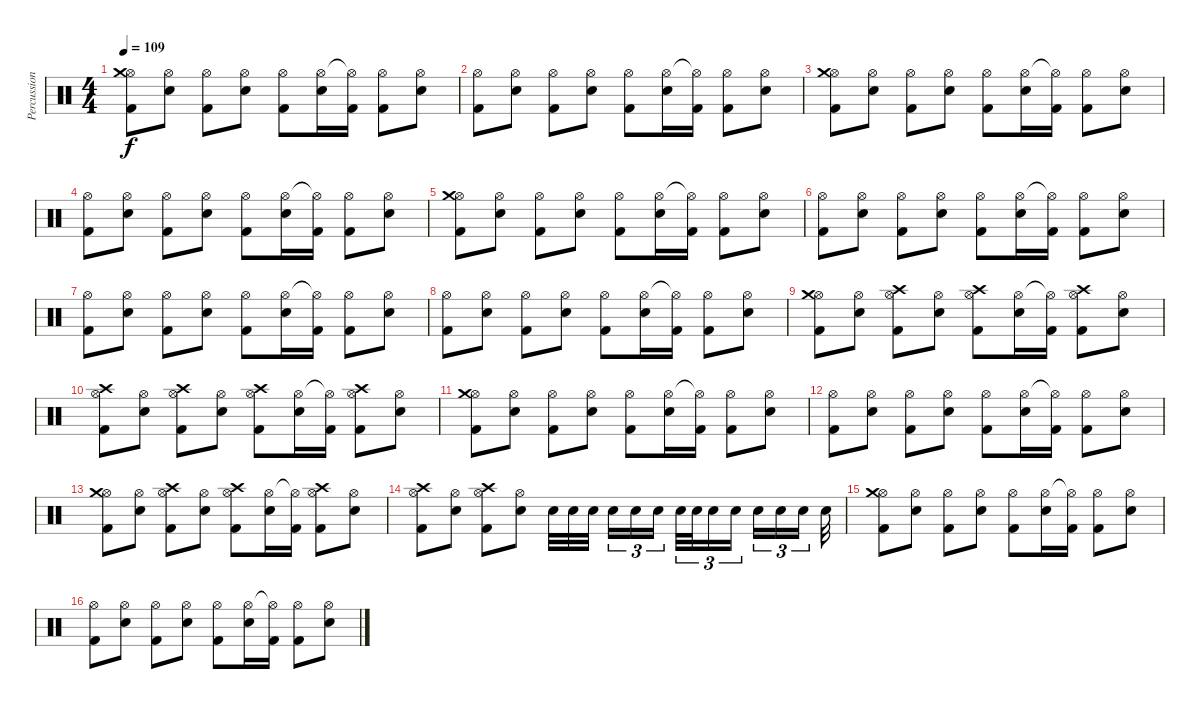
\track ("Percussion" "Percussion") {instrument percussion}
\staff {score}
\articulation defaults
\ts (4 4)
\tempo 109
\clef neutral
\ks c
("Hi-Hat (open)" "Crash medium (hit)" "Kick (hit) 2").8{dy f} ("Hi-Hat (open)" "Electric Snare (hit)").8 ("Hi-Hat (open)" "Kick (hit) 2").8 ("Hi-Hat (open)" "Electric Snare (hit)").8 ("Hi-Hat (open)" "Kick (hit) 2").8 ("Hi-Hat (open)" "Electric Snare (hit)").16 ("Hi-Hat (open)"{t} "Kick (hit) 2").16 ("Hi-Hat (open)" "Kick (hit) 2").8 ("Hi-Hat (open)" "Electric Snare (hit)").8 |
("Hi-Hat (open)" "Kick (hit) 2").8 ("Hi-Hat (open)" "Electric Snare (hit)").8 ("Hi-Hat (open)" "Kick (hit) 2").8 ("Hi-Hat (open)" "Electric Snare (hit)").8 ("Hi-Hat (open)" "Kick (hit) 2").8 ("Hi-Hat (open)" "Electric Snare (hit)").16 ("Hi-Hat (open)"{t} "Kick (hit) 2").16 ("Hi-Hat (open)" "Kick (hit) 2").8 ("Hi-Hat (open)" "Electric Snare (hit)").8 |
("Hi-Hat (open)" "Crash medium (hit)" "Kick (hit) 2").8 ("Hi-Hat (open)" "Electric Snare (hit)").8 ("Hi-Hat (open)" "Kick (hit) 2").8 ("Hi-Hat (open)" "Electric Snare (hit)").8 ("Hi-Hat (open)" "Kick (hit) 2").8 ("Hi-Hat (open)" "Electric Snare (hit)").16 ("Hi-Hat (open)"{t} "Kick (hit) 2").16 ("Hi-Hat (open)" "Kick (hit) 2").8 ("Hi-Hat (open)" "Electric Snare (hit)").8 |
("Hi-Hat (open)" "Kick (hit) 2").8 ("Hi-Hat (open)" "Electric Snare (hit)").8 ("Hi-Hat (open)" "Kick (hit) 2").8 ("Hi-Hat (open)" "Electric Snare (hit)").8 ("Hi-Hat (open)" "Kick (hit) 2").8 ("Hi-Hat (open)" "Electric Snare (hit)").16 ("Hi-Hat (open)"{t} "Kick (hit) 2").16 ("Hi-Hat (open)" "Kick (hit) 2").8 ("Hi-Hat (open)" "Electric Snare (hit)").8 |
("Hi-Hat (open)" "Crash medium (hit)" "Kick (hit) 2").8 ("Hi-Hat (open)" "Electric Snare (hit)").8 ("Hi-Hat (open)" "Kick (hit) 2").8 ("Hi-Hat (open)" "Electric Snare (hit)").8 ("Hi-Hat (open)" "Kick (hit) 2").8 ("Hi-Hat (open)" "Electric Snare (hit)").16 ("Hi-Hat (open)"{t} "Kick (hit) 2").16 ("Hi-Hat (open)" "Kick (hit) 2").8 ("Hi-Hat (open)" "Electric Snare (hit)").8 |
("Hi-Hat (open)" "Kick (hit) 2").8 ("Hi-Hat (open)" "Electric Snare (hit)").8 ("Hi-Hat (open)" "Kick (hit) 2").8 ("Hi-Hat (open)" "Electric Snare (hit)").8 ("Hi-Hat (open)" "Kick (hit) 2").8 ("Hi-Hat (open)" "Electric Snare (hit)").16 ("Hi-Hat (open)"{t} "Kick (hit) 2").16 ("Hi-Hat (open)" "Kick (hit) 2").8 ("Hi-Hat (open)" "Electric Snare (hit)").8 |
("Hi-Hat (open)" "Kick (hit) 2").8 ("Hi-Hat (open)" "Electric Snare (hit)").8 ("Hi-Hat (open)" "Kick (hit) 2").8 ("Hi-Hat (open)" "Electric Snare (hit)").8 ("Hi-Hat (open)" "Kick (hit) 2").8 ("Hi-Hat (open)" "Electric Snare (hit)").16 ("Hi-Hat (open)"{t} "Kick (hit) 2").16 ("Hi-Hat (open)" "Kick (hit) 2").8 ("Hi-Hat (open)" "Electric Snare (hit)").8 |
("Hi-Hat (open)" "Kick (hit) 2").8 ("Hi-Hat (open)" "Electric Snare (hit)").8 ("Hi-Hat (open)" "Kick (hit) 2").8 ("Hi-Hat (open)" "Electric Snare (hit)").8 ("Hi-Hat (open)" "Kick (hit) 2").8 ("Hi-Hat (open)" "Electric Snare (hit)").16 ("Hi-Hat (open)"{t} "Kick (hit) 2").16 ("Hi-Hat (open)" "Kick (hit) 2").8 ("Hi-Hat (open)" "Electric Snare (hit)").8 |
("Hi-Hat (open)" "Crash medium (hit)" "Kick (hit) 2").8 ("Hi-Hat (open)" "Electric Snare (hit)").8 ("Hi-Hat (open)" "Crash high (hit)" "Kick (hit) 2").8 ("Hi-Hat (open)" "Electric Snare (hit)").8 ("Hi-Hat (open)" "Crash high (hit)" "Kick (hit) 2").8 ("Hi-Hat (open)" "Electric Snare (hit)").16 ("Hi-Hat (open)"{t} "Kick (hit) 2").16 ("Hi-Hat (open)" "Crash high (hit)" "Kick (hit) 2").8 ("Hi-Hat (open)" "Electric Snare (hit)").8 |
("Hi-Hat (open)" "Crash high (hit)" "Kick (hit) 2").8 ("Hi-Hat (open)" "Electric Snare (hit)").8 ("Hi-Hat (open)" "Crash high (hit)" "Kick (hit) 2").8 ("Hi-Hat (open)" "Electric Snare (hit)").8 ("Hi-Hat (open)" "Crash high (hit)" "Kick (hit) 2").8 ("Hi-Hat (open)" "Electric Snare (hit)").16 ("Hi-Hat (open)"{t} "Kick (hit) 2").16 ("Hi-Hat (open)" "Crash high (hit)" "Kick (hit) 2").8 ("Hi-Hat (open)" "Electric Snare (hit)").8 |
("Hi-Hat (open)" "Crash medium (hit)" "Kick (hit) 2").8 ("Hi-Hat (open)" "Electric Snare (hit)").8 ("Hi-Hat (open)" "Kick (hit) 2").8 ("Hi-Hat (open)" "Electric Snare (hit)").8 ("Hi-Hat (open)" "Kick (hit) 2").8 ("Hi-Hat (open)" "Electric Snare (hit)").16 ("Hi-Hat (open)"{t} "Kick (hit) 2").16 ("Hi-Hat (open)" "Kick (hit) 2").8 ("Hi-Hat (open)" "Electric Snare (hit)").8 |
("Hi-Hat (open)" "Kick (hit) 2").8 ("Hi-Hat (open)" "Electric Snare (hit)").8 ("Hi-Hat (open)" "Kick (hit) 2").8 ("Hi-Hat (open)" "Electric Snare (hit)").8 ("Hi-Hat (open)" "Kick (hit) 2").8 ("Hi-Hat (open)" "Electric Snare (hit)").16 ("Hi-Hat (open)"{t} "Kick (hit) 2").16 ("Hi-Hat (open)" "Kick (hit) 2").8 ("Hi-Hat (open)" "Electric Snare (hit)").8 |
("Hi-Hat (open)" "Crash medium (hit)" "Kick (hit) 2").8 ("Hi-Hat (open)" "Electric Snare (hit)").8 ("Hi-Hat (open)" "Crash high (hit)" "Kick (hit) 2").8 ("Hi-Hat (open)" "Electric Snare (hit)").8 ("Hi-Hat (open)" "Crash high (hit)" "Kick (hit) 2").8 ("Hi-Hat (open)" "Electric Snare (hit)").16 ("Hi-Hat (open)"{t} "Kick (hit) 2").16 ("Hi-Hat (open)" "Crash high (hit)" "Kick (hit) 2").8 ("Hi-Hat (open)" "Electric Snare (hit)").8 |
("Hi-Hat (open)" "Crash high (hit)" "Kick (hit) 2").8 ("Hi-Hat (open)" "Electric Snare (hit)").8 ("Hi-Hat (open)" "Crash high (hit)" "Kick (hit) 2").8 ("Hi-Hat (open)" "Electric Snare (hit)").8 "Electric Snare (hit)".32 "Electric Snare (hit)".32 "Electric Snare (hit)".32{beam splitsecondary} "Electric Snare (hit)".16{tu (3 2)} "Electric Snare (hit)".16{tu (3 2)} "Electric Snare (hit)".16{tu (3 2) beam splitsecondary} "Electric Snare (hit)".32{tu (3 2)} "Electric Snare (hit)".32{tu (3 2)} "Electric Snare (hit)".16{tu (3 2)} "Electric Snare (hit)".16{tu (3 2) beam splitsecondary} "Electric Snare (hit)".16{tu (3 2)} "Electric Snare (hit)".16{tu (3 2)} "Electric Snare (hit)".16{tu (3 2) beam splitsecondary} "Electric Snare (hit)".32 |
("Hi-Hat (open)" "Crash medium (hit)" "Kick (hit) 2").8 ("Hi-Hat (open)" "Electric Snare (hit)").8 ("Hi-Hat (open)" "Kick (hit) 2").8 ("Hi-Hat (open)" "Electric Snare (hit)").8 ("Hi-Hat (open)" "Kick (hit) 2").8 ("Hi-Hat (open)" "Electric Snare (hit)").16 ("Hi-Hat (open)"{t} "Kick (hit) 2").16 ("Hi-Hat (open)" "Kick (hit) 2").8 ("Hi-Hat (open)" "Electric Snare (hit)").8 |
("Hi-Hat (open)" "Kick (hit) 2").8 ("Hi-Hat (open)" "Electric Snare (hit)").8 ("Hi-Hat (open)" "Kick (hit) 2").8 ("Hi-Hat (open)" "Electric Snare (hit)").8 ("Hi-Hat (open)" "Kick (hit) 2").8 ("Hi-Hat (open)" "Electric Snare (hit)").16 ("Hi-Hat (open)"{t} "Kick (hit) 2").16 ("Hi-Hat (open)" "Kick (hit) 2").8 ("Hi-Hat (open)" "Electric Snare (hit)").8
